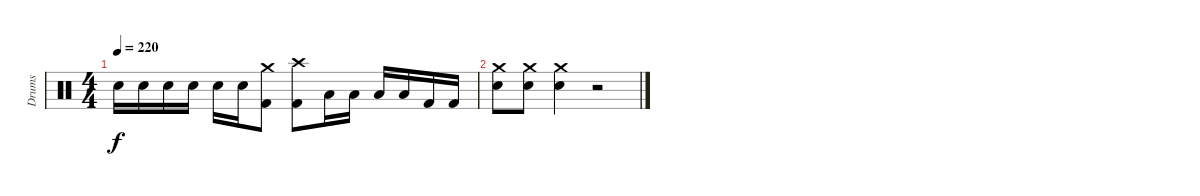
\track ("Drums" "Drums") {instrument percussion}
\staff {score}
\articulation defaults
\ts (4 4)
\tempo 220
\clef neutral
\ks c "Electric Snare (hit)".16{dy f} "Electric Snare (hit)".16 "Electric Snare (hit)".16 "Electric Snare (hit)".16 "Electric Snare (hit)".16 "Electric Snare (hit)".16
("Kick (hit) 2" "Crash medium (hit)").8 ("Kick (hit) 2" "Crash high (hit)").8 "Low Tom (hit)".16 "Low Tom (hit)".16 "Low Tom (hit)".16 "Low Tom (hit)".16 "Kick (hit) 2".16 "Kick (hit) 2".16 |
("Electric Snare (hit)" "Crash medium (hit)").8 ("Electric Snare (hit)" "Crash medium (hit)").8 ("Electric Snare (hit)" "Crash medium (hit)").4 r.2
